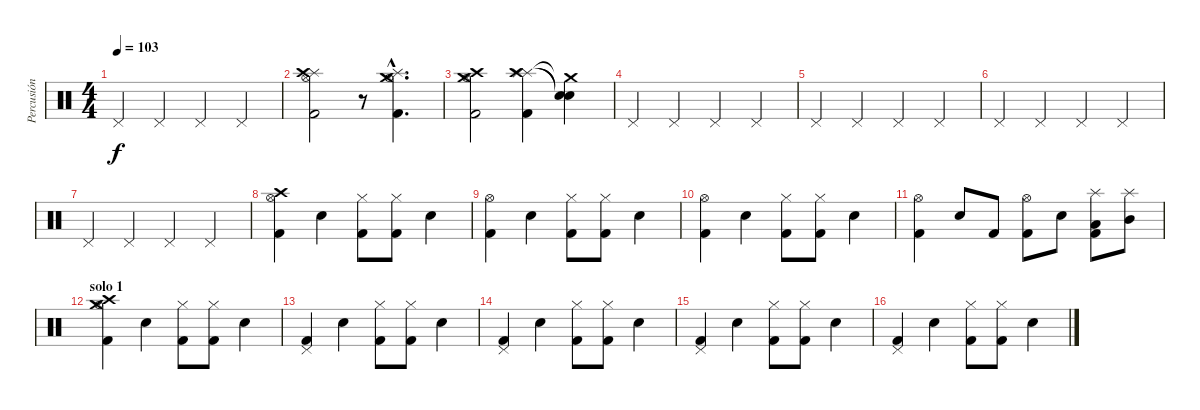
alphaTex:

\track ("Percusión" "Percusión") {instrument percussion}
\staff {score}
\articulation defaults
\ts (4 4)
\tempo 103
\clef neutral
\ks c "Pedal Hi-Hat (hit)".4{dy f} "Pedal Hi-Hat (hit)".4 "Pedal Hi-Hat (hit)".4 "Pedal Hi-Hat (hit)".4
|
("Splash (hit)" "Crash high (hit)" "Hi-Hat (open)" "Kick (hit) 2").2 r.8 ("Splash (hit)"{hac} "Crash medium (hit)"{hac} "Hi-Hat (open)"{hac} "Kick (hit) 2"{hac}).4{d} |
("Crash medium (hit)" "Crash high (hit)" "Hi-Hat (open)" "Kick (hit) 2").2 ("Splash (hit)" "Splash (hit)" "Crash high (hit)" "Kick (hit) 2").4 ("Crash medium (hit)"{t} "Snare (hit)"{t} "Snare (hit)"{t}).4 |
"Pedal Hi-Hat (hit)".4 "Pedal Hi-Hat (hit)".4 "Pedal Hi-Hat (hit)".4 "Pedal Hi-Hat (hit)".4 |
"Pedal Hi-Hat (hit)".4 "Pedal Hi-Hat (hit)".4 "Pedal Hi-Hat (hit)".4 "Pedal Hi-Hat (hit)".4 |
"Pedal Hi-Hat (hit)".4 "Pedal Hi-Hat (hit)".4 "Pedal Hi-Hat (hit)".4 "Pedal Hi-Hat (hit)".4 |
"Pedal Hi-Hat (hit)".4 "Pedal Hi-Hat (hit)".4 "Pedal Hi-Hat (hit)".4 "Pedal Hi-Hat (hit)".4 |
("Crash high (hit)" "Hi-Hat (open)" "Kick (hit) 2").4 "Electric Snare (hit)".4 ("Hi-Hat (closed)" "Kick (hit) 2").8 ("Hi-Hat (closed)" "Kick (hit) 2").8 "Electric Snare (hit)".4 |
("Hi-Hat (open)" "Kick (hit) 2").4 "Electric Snare (hit)".4 ("Hi-Hat (closed)" "Kick (hit) 2").8 ("Hi-Hat (closed)" "Kick (hit) 2").8 "Electric Snare (hit)".4 |
("Hi-Hat (open)" "Kick (hit) 2").4 "Electric Snare (hit)".4 ("Hi-Hat (closed)" "Kick (hit) 2").8 ("Hi-Hat (closed)" "Kick (hit) 2").8 "Electric Snare (hit)".4 |
("Hi-Hat (open)" "Kick (hit) 2").4 "Electric Snare (hit)".8 "Kick (hit) 2".8 ("Hi-Hat (open)" "Kick (hit) 2").8 "Electric Snare (hit)".8 ("Splash (hit)" "Low Tom (hit)" "Kick (hit) 2").8 ("Splash (hit)" "Mid Tom (hit)").8 |
\section ("" "solo 1")
("Crash medium (hit)" "Crash high (hit)" "Hi-Hat (open)" "Kick (hit) 2").4 "Electric Snare (hit)".4 ("Hi-Hat (closed)" "Kick (hit) 2").8 ("Hi-Hat (closed)" "Kick (hit) 2").8 "Electric Snare (hit)".4 |
("Pedal Hi-Hat (hit)" "Kick (hit) 2").4 "Electric Snare (hit)".4 ("Hi-Hat (closed)" "Kick (hit) 2").8 ("Hi-Hat (closed)" "Kick (hit) 2").8 "Electric Snare (hit)".4 |
("Pedal Hi-Hat (hit)" "Kick (hit) 2").4 "Electric Snare (hit)".4 ("Hi-Hat (closed)" "Kick (hit) 2").8 ("Hi-Hat (closed)" "Kick (hit) 2").8 "Electric Snare (hit)".4 |
("Pedal Hi-Hat (hit)" "Kick (hit) 2").4 "Electric Snare (hit)".4 ("Hi-Hat (closed)" "Kick (hit) 2").8 ("Hi-Hat (closed)" "Kick (hit) 2").8 "Electric Snare (hit)".4 |
("Pedal Hi-Hat (hit)" "Kick (hit) 2").4 "Electric Snare (hit)".4 ("Hi-Hat (closed)" "Kick (hit) 2").8 ("Hi-Hat (closed)" "Kick (hit) 2").8 "Electric Snare (hit)".4
